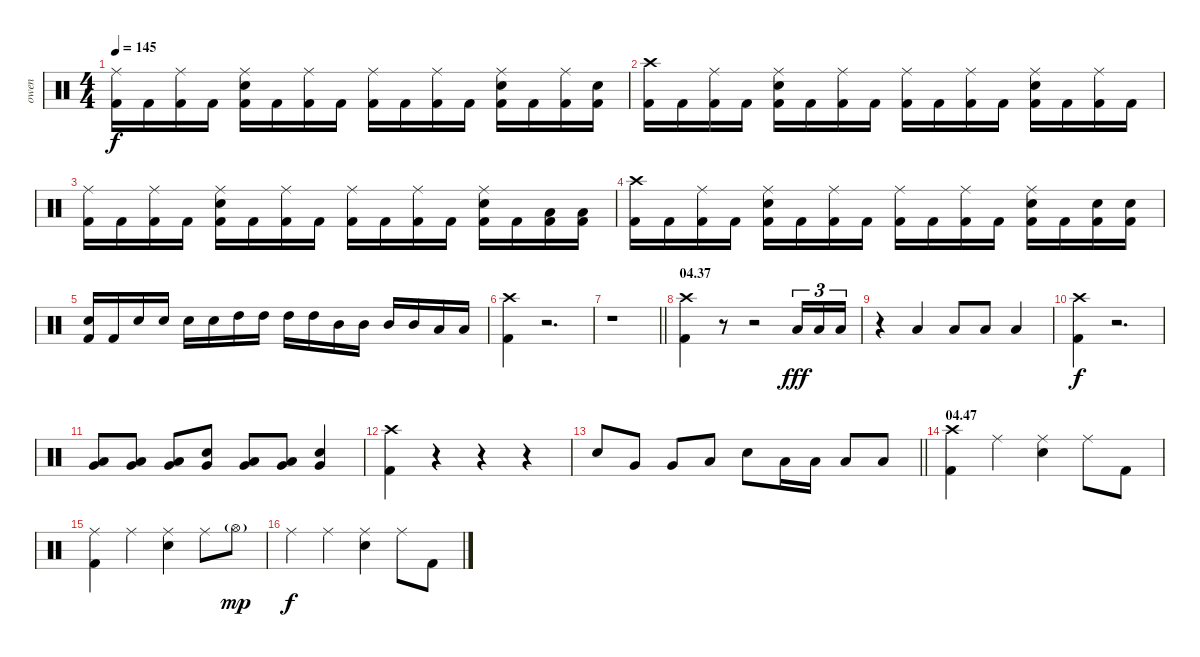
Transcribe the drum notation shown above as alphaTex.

\track ("owen" "owen") {instrument percussion}
\staff {score}
\articulation defaults
\ts (4 4)
\tempo 145
\clef neutral
\ks c
("Ride (middle)" "Kick (hit) 2").16{dy f} "Kick (hit) 2".16 ("Ride (middle)" "Kick (hit) 2").16 "Kick (hit) 2".16 ("Ride (middle)" "Snare (hit) 2" "Kick (hit) 2").16 "Kick (hit) 2".16 ("Ride (middle)" "Kick (hit) 2").16 "Kick (hit) 2".16 ("Ride (middle)" "Kick (hit) 2").16 "Kick (hit) 2".16 ("Ride (middle)" "Kick (hit) 2").16 "Kick (hit) 2".16 ("Ride (middle)" "Snare (hit) 2" "Kick (hit) 2").16 "Kick (hit) 2".16 ("Ride (middle)" "Kick (hit) 2").16 ("Snare (hit) 2" "Kick (hit) 2").16 |
("Crash high (hit)" "Kick (hit) 2").16 "Kick (hit) 2".16 ("Ride (middle)" "Kick (hit) 2").16 "Kick (hit) 2".16 ("Ride (middle)" "Snare (hit) 2" "Kick (hit) 2").16 "Kick (hit) 2".16 ("Ride (middle)" "Kick (hit) 2").16 "Kick (hit) 2".16 ("Ride (middle)" "Kick (hit) 2").16 "Kick (hit) 2".16 ("Ride (middle)" "Kick (hit) 2").16 "Kick (hit) 2".16 ("Ride (middle)" "Snare (hit) 2" "Kick (hit) 2").16 "Kick (hit) 2".16 ("Ride (middle)" "Kick (hit) 2").16 "Kick (hit) 2".16 |
("Ride (middle)" "Kick (hit) 2").16 "Kick (hit) 2".16 ("Ride (middle)" "Kick (hit) 2").16 "Kick (hit) 2".16 ("Ride (middle)" "Snare (hit) 2" "Kick (hit) 2").16 "Kick (hit) 2".16 ("Ride (middle)" "Kick (hit) 2").16 "Kick (hit) 2".16 ("Ride (middle)" "Kick (hit) 2").16 "Kick (hit) 2".16 ("Ride (middle)" "Kick (hit) 2").16 "Kick (hit) 2".16 ("Ride (middle)" "Snare (hit) 2" "Kick (hit) 2").16 "Kick (hit) 2".16 ("Low Tom (hit)" "Kick (hit) 2").16 ("Low Tom (hit)" "Kick (hit) 2").16 |
("Crash high (hit)" "Kick (hit) 2").16 "Kick (hit) 2".16 ("Ride (middle)" "Kick (hit) 2").16 "Kick (hit) 2".16 ("Ride (middle)" "Snare (hit) 2" "Kick (hit) 2").16 "Kick (hit) 2".16 ("Ride (middle)" "Kick (hit) 2").16 "Kick (hit) 2".16 ("Ride (middle)" "Kick (hit) 2").16 "Kick (hit) 2".16 ("Ride (middle)" "Kick (hit) 2").16 "Kick (hit) 2".16 ("Ride (middle)" "Snare (hit) 2" "Kick (hit) 2").16 "Kick (hit) 2".16 ("Snare (hit) 2" "Kick (hit) 2").16 ("Snare (hit) 2" "Kick (hit) 2").16 |
("Snare (hit) 2" "Kick (hit) 2").16 "Kick (hit) 2".16 "Snare (hit) 2".16 "Snare (hit) 2".16 "Snare (hit) 2".16 "Snare (hit) 2".16 "High Tom (hit)".16 "High Tom (hit)".16 "High Tom (hit)".16 "High Tom (hit)".16 "Mid Tom (hit)".16 "Mid Tom (hit)".16 "Mid Tom (hit)".16 "Mid Tom (hit)".16 "Low Tom (hit)".16 "Low Tom (hit)".16 |
("Crash high (hit)" "Kick (hit) 2").4 r.2{d} |
\barLineRight lightlight
r.1 |
\section ("" "04.37")
("Crash high (hit)" "Kick (hit) 2").4 r.8 r.2 "Low Tom (hit)".16{tu (3 2) dy fff} "Low Tom (hit)".16{tu (3 2)} "Low Tom (hit)".16{tu (3 2)} |
r.4 "Low Tom (hit)".4 "Low Tom (hit)".8 "Low Tom (hit)".8 "Low Tom (hit)".4 |
("Crash high (hit)" "Kick (hit) 2").4{dy f} r.2{d} |
("Low Tom (hit)" "Very Low Tom (hit)").8 ("Low Tom (hit)" "Very Low Tom (hit)").8 ("Low Tom (hit)" "Very Low Tom (hit)").8 ("Snare (hit) 2" "Very Low Tom (hit)").8 ("Low Tom (hit)" "Very Low Tom (hit)").8 ("Low Tom (hit)" "Very Low Tom (hit)").8 ("Snare (hit) 2" "Very Low Tom (hit)").4 |
("Crash high (hit)" "Kick (hit) 2").4 r.4 r.4 r.4 |
\barLineRight lightlight "Snare (hit) 2".8 "Very Low Tom (hit)".8 "Very Low Tom (hit)".8 "Low Tom (hit)".8 "Snare (hit) 2".8 "Low Tom (hit)".16 "Low Tom (hit)".16 "Low Tom (hit)".8 "Low Tom (hit)".8
|
\section ("" "04.47")
("Crash high (hit)" "Kick (hit) 2").4 "Ride (middle)".4 ("Ride (middle)" "Snare (hit) 2").4 "Ride (middle)".8 "Kick (hit) 2".8 |
("Ride (middle)" "Kick (hit) 2").4 "Ride (middle)".4 ("Ride (middle)" "Snare (hit) 2").4 "Ride (middle)".8 "Hi-Hat (open)"{g}.8{dy mp} |
"Ride (middle)".4{dy f} "Ride (middle)".4 ("Ride (middle)" "Snare (hit) 2").4 "Ride (middle)".8 "Kick (hit) 2".8
